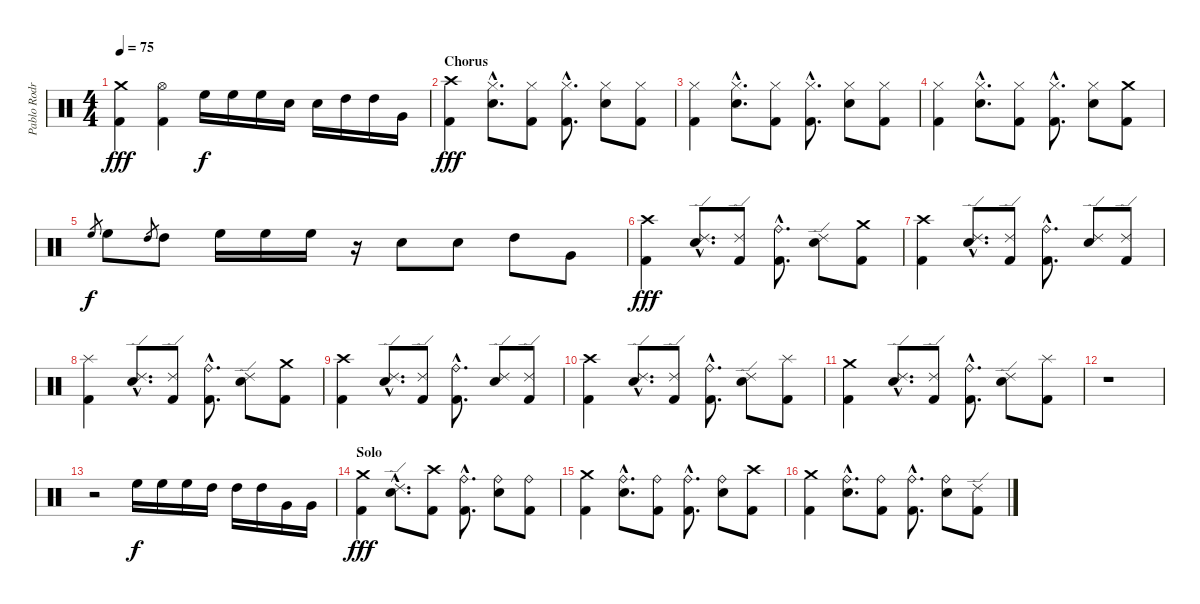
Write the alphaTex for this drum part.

\track ("Pablo Rodrigues" "Pablo Rodr") {instrument percussion}
\staff {score}
\articulation defaults
\ts (4 4)
\tempo 75
\clef neutral
\ks c
("Crash medium (hit)" "Kick (hit) 2").4{dy fff} ("Hi-Hat (open)" "Kick (hit) 2").4 "High Floor Tom (hit)".16{dy f} "High Floor Tom (hit)".16 "High Floor Tom (hit)".16 "Snare (hit) 2".16 "Snare (hit) 2".16 "High Tom (hit)".16 "High Tom (hit)".16 "Very Low Tom (hit)".16 |
\section ("" "Chorus")
("Crash high (hit)" "Kick (hit) 2").4{dy fff} ("Hi-Hat (closed)"{hac} "Snare (hit) 2"{hac}).8{d} ("Hi-Hat (closed)" "Kick (hit) 2").8 ("Hi-Hat (closed)"{hac} "Kick (hit) 2"{hac}).8{d} ("Hi-Hat (closed)" "Snare (hit) 2").8 ("Hi-Hat (closed)" "Kick (hit) 2").8 |
("Hi-Hat (closed)" "Kick (hit) 2").4 ("Hi-Hat (closed)"{hac} "Snare (hit) 2"{hac}).8{d} ("Hi-Hat (closed)" "Kick (hit) 2").8 ("Hi-Hat (closed)"{hac} "Kick (hit) 2"{hac}).8{d} ("Hi-Hat (closed)" "Snare (hit) 2").8 ("Hi-Hat (closed)" "Kick (hit) 2").8 |
("Hi-Hat (closed)" "Kick (hit) 2").4 ("Hi-Hat (closed)"{hac} "Snare (hit) 2"{hac}).8{d} ("Hi-Hat (closed)" "Kick (hit) 2").8 ("Hi-Hat (closed)"{hac} "Kick (hit) 2"{hac}).8{d} ("Hi-Hat (closed)" "Snare (hit) 2").8 ("Crash medium (hit)" "Kick (hit) 2").8 |
"High Floor Tom (hit)".8{gr dy f} "High Floor Tom (hit)".8 "High Tom (hit)".8{gr} "High Tom (hit)".8 "High Floor Tom (hit)".16 "High Floor Tom (hit)".16 "High Floor Tom (hit)".16 r.16 "Snare (hit) 2".8 "Snare (hit) 2".8 "High Tom (hit)".8 "Very Low Tom (hit)".8 |
("Crash high (hit)" "Kick (hit) 2").4{dy fff} ("Ride (edge) 2"{hac} "Snare (hit) 2"{hac}).8{d} ("Ride (edge) 2" "Kick (hit) 2").8 ("Ride (bell)"{hac} "Kick (hit) 2"{hac}).8{d} ("Ride (edge) 2" "Snare (hit) 2").8 ("Crash medium (hit)" "Kick (hit) 2").8 |
("Crash high (hit)" "Kick (hit) 2").4 ("Ride (edge) 2"{hac} "Snare (hit) 2"{hac}).8{d} ("Ride (edge) 2" "Kick (hit) 2").8 ("Ride (bell)"{hac} "Kick (hit) 2"{hac}).8{d} ("Ride (edge) 2" "Snare (hit) 2").8 ("Ride (edge) 2" "Kick (hit) 2").8 |
("Splash (hit)" "Kick (hit) 2").4 ("Ride (edge) 2"{hac} "Snare (hit) 2"{hac}).8{d} ("Ride (edge) 2" "Kick (hit) 2").8 ("Ride (bell)"{hac} "Kick (hit) 2"{hac}).8{d} ("Ride (edge) 2" "Snare (hit) 2").8 ("Crash medium (hit)" "Kick (hit) 2").8 |
("Crash high (hit)" "Kick (hit) 2").4 ("Ride (edge) 2"{hac} "Snare (hit) 2"{hac}).8{d} ("Ride (edge) 2" "Kick (hit) 2").8 ("Ride (bell)"{hac} "Kick (hit) 2"{hac}).8{d} ("Ride (edge) 2" "Snare (hit) 2").8 ("Ride (edge) 2" "Kick (hit) 2").8 |
("Crash high (hit)" "Kick (hit) 2").4 ("Ride (edge) 2"{hac} "Snare (hit) 2"{hac}).8{d} ("Ride (edge) 2" "Kick (hit) 2").8 ("Ride (bell)"{hac} "Kick (hit) 2"{hac}).8{d} ("Ride (edge) 2" "Snare (hit) 2").8 ("Splash (hit)" "Kick (hit) 2").8 |
("Crash medium (hit)" "Kick (hit) 2").4 ("Ride (edge) 2"{hac} "Snare (hit) 2"{hac}).8{d} ("Ride (edge) 2" "Kick (hit) 2").8 ("Ride (bell)"{hac} "Kick (hit) 2"{hac}).8{d} ("Ride (edge) 2" "Snare (hit) 2").8 ("Splash (hit)" "Kick (hit) 2").8 |
r.1 |
r.2 "High Floor Tom (hit)".16{dy f} "High Floor Tom (hit)".16 "High Floor Tom (hit)".16 "High Tom (hit)".16 "High Tom (hit)".16 "High Tom (hit)".16 "Very Low Tom (hit)".16 "Very Low Tom (hit)".16 |
\section ("" "Solo")
("Crash medium (hit)" "Kick (hit) 2").4{dy fff} ("Ride (edge) 2"{hac} "Snare (hit) 2"{hac}).8{d} ("Crash high (hit)" "Kick (hit) 2").8 ("Ride (bell)"{hac} "Kick (hit) 2"{hac}).8{d} ("Ride (bell)" "Snare (hit) 2").8 ("Ride (bell)" "Kick (hit) 2").8 |
("Crash medium (hit)" "Kick (hit) 2").4 ("Ride (bell)"{hac} "Snare (hit) 2"{hac}).8{d} ("Ride (bell)" "Kick (hit) 2").8 ("Ride (bell)"{hac} "Kick (hit) 2"{hac}).8{d} ("Ride (bell)" "Snare (hit) 2").8 ("Crash high (hit)" "Kick (hit) 2").8 |
("Crash medium (hit)" "Kick (hit) 2").4 ("Ride (bell)"{hac} "Snare (hit) 2"{hac}).8{d} ("Ride (bell)" "Kick (hit) 2").8 ("Ride (bell)"{hac} "Kick (hit) 2"{hac}).8{d} ("Ride (bell)" "Snare (hit) 2").8 ("Ride (edge) 2" "Kick (hit) 2").8
